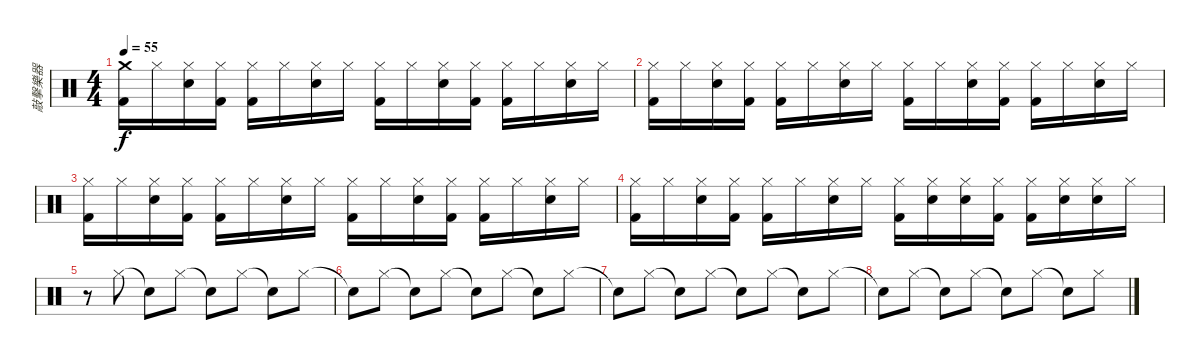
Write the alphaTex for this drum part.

\track ("敲擊樂器" "敲擊樂器") {instrument percussion}
\staff {score}
\articulation defaults
\ts (4 4)
\tempo 55
\clef neutral
\ks c
("Crash medium (hit)" "Kick (hit) 2").16{dy f} "Hi-Hat (closed)".16 ("Hi-Hat (closed)" "Snare (hit) 2").16 ("Hi-Hat (closed)" "Kick (hit) 2").16 ("Hi-Hat (closed)" "Kick (hit) 2").16 "Hi-Hat (closed)".16 ("Hi-Hat (closed)" "Snare (hit) 2").16 "Hi-Hat (closed)".16 ("Hi-Hat (closed)" "Kick (hit) 2").16 "Hi-Hat (closed)".16 ("Hi-Hat (closed)" "Snare (hit) 2").16 ("Hi-Hat (closed)" "Kick (hit) 2").16 ("Hi-Hat (closed)" "Kick (hit) 2").16 "Hi-Hat (closed)".16 ("Hi-Hat (closed)" "Snare (hit) 2").16 "Hi-Hat (closed)".16 |
("Hi-Hat (closed)" "Kick (hit) 2").16 "Hi-Hat (closed)".16 ("Hi-Hat (closed)" "Snare (hit) 2").16 ("Hi-Hat (closed)" "Kick (hit) 2").16 ("Hi-Hat (closed)" "Kick (hit) 2").16 "Hi-Hat (closed)".16 ("Hi-Hat (closed)" "Snare (hit) 2").16 "Hi-Hat (closed)".16 ("Hi-Hat (closed)" "Kick (hit) 2").16 "Hi-Hat (closed)".16 ("Hi-Hat (closed)" "Snare (hit) 2").16 ("Hi-Hat (closed)" "Kick (hit) 2").16 ("Hi-Hat (closed)" "Kick (hit) 2").16 "Hi-Hat (closed)".16 ("Hi-Hat (closed)" "Snare (hit) 2").16 "Hi-Hat (closed)".16 |
("Hi-Hat (closed)" "Kick (hit) 2").16 "Hi-Hat (closed)".16 ("Hi-Hat (closed)" "Snare (hit) 2").16 ("Hi-Hat (closed)" "Kick (hit) 2").16 ("Hi-Hat (closed)" "Kick (hit) 2").16 "Hi-Hat (closed)".16 ("Hi-Hat (closed)" "Snare (hit) 2").16 "Hi-Hat (closed)".16 ("Hi-Hat (closed)" "Kick (hit) 2").16 "Hi-Hat (closed)".16 ("Hi-Hat (closed)" "Snare (hit) 2").16 ("Hi-Hat (closed)" "Kick (hit) 2").16 ("Hi-Hat (closed)" "Kick (hit) 2").16 "Hi-Hat (closed)".16 ("Hi-Hat (closed)" "Snare (hit) 2").16 "Hi-Hat (closed)".16 |
("Hi-Hat (closed)" "Kick (hit) 2").16 "Hi-Hat (closed)".16 ("Hi-Hat (closed)" "Snare (hit) 2").16 ("Hi-Hat (closed)" "Kick (hit) 2").16 ("Hi-Hat (closed)" "Kick (hit) 2").16 "Hi-Hat (closed)".16 ("Hi-Hat (closed)" "Snare (hit) 2").16 "Hi-Hat (closed)".16 ("Hi-Hat (closed)" "Kick (hit) 2").16 ("Hi-Hat (closed)" "Snare (hit) 2").16 ("Hi-Hat (closed)" "Snare (hit) 2").16 ("Hi-Hat (closed)" "Kick (hit) 2").16 ("Hi-Hat (closed)" "Kick (hit) 2").16 ("Hi-Hat (closed)" "Snare (hit) 2").16 ("Hi-Hat (closed)" "Snare (hit) 2").16 "Hi-Hat (closed)".16 |
r.8 "Hi-Hat (closed)".8 "Snare (hit)"{t}.8 "Hi-Hat (closed)".8 "Snare (hit)"{t}.8 "Hi-Hat (closed)".8 "Snare (hit)"{t}.8 "Hi-Hat (closed)".8 |
"Snare (hit)"{t}.8 "Hi-Hat (closed)".8 "Snare (hit)"{t}.8 "Hi-Hat (closed)".8 "Snare (hit)"{t}.8 "Hi-Hat (closed)".8 "Snare (hit)"{t}.8 "Hi-Hat (closed)".8 |
"Snare (hit)"{t}.8 "Hi-Hat (closed)".8 "Snare (hit)"{t}.8 "Hi-Hat (closed)".8 "Snare (hit)"{t}.8 "Hi-Hat (closed)".8 "Snare (hit)"{t}.8 "Hi-Hat (closed)".8 |
"Snare (hit)"{t}.8 "Hi-Hat (closed)".8 "Snare (hit)"{t}.8 "Hi-Hat (closed)".8 "Snare (hit)"{t}.8 "Hi-Hat (closed)".8 "Snare (hit)"{t}.8 "Hi-Hat (closed)".8
